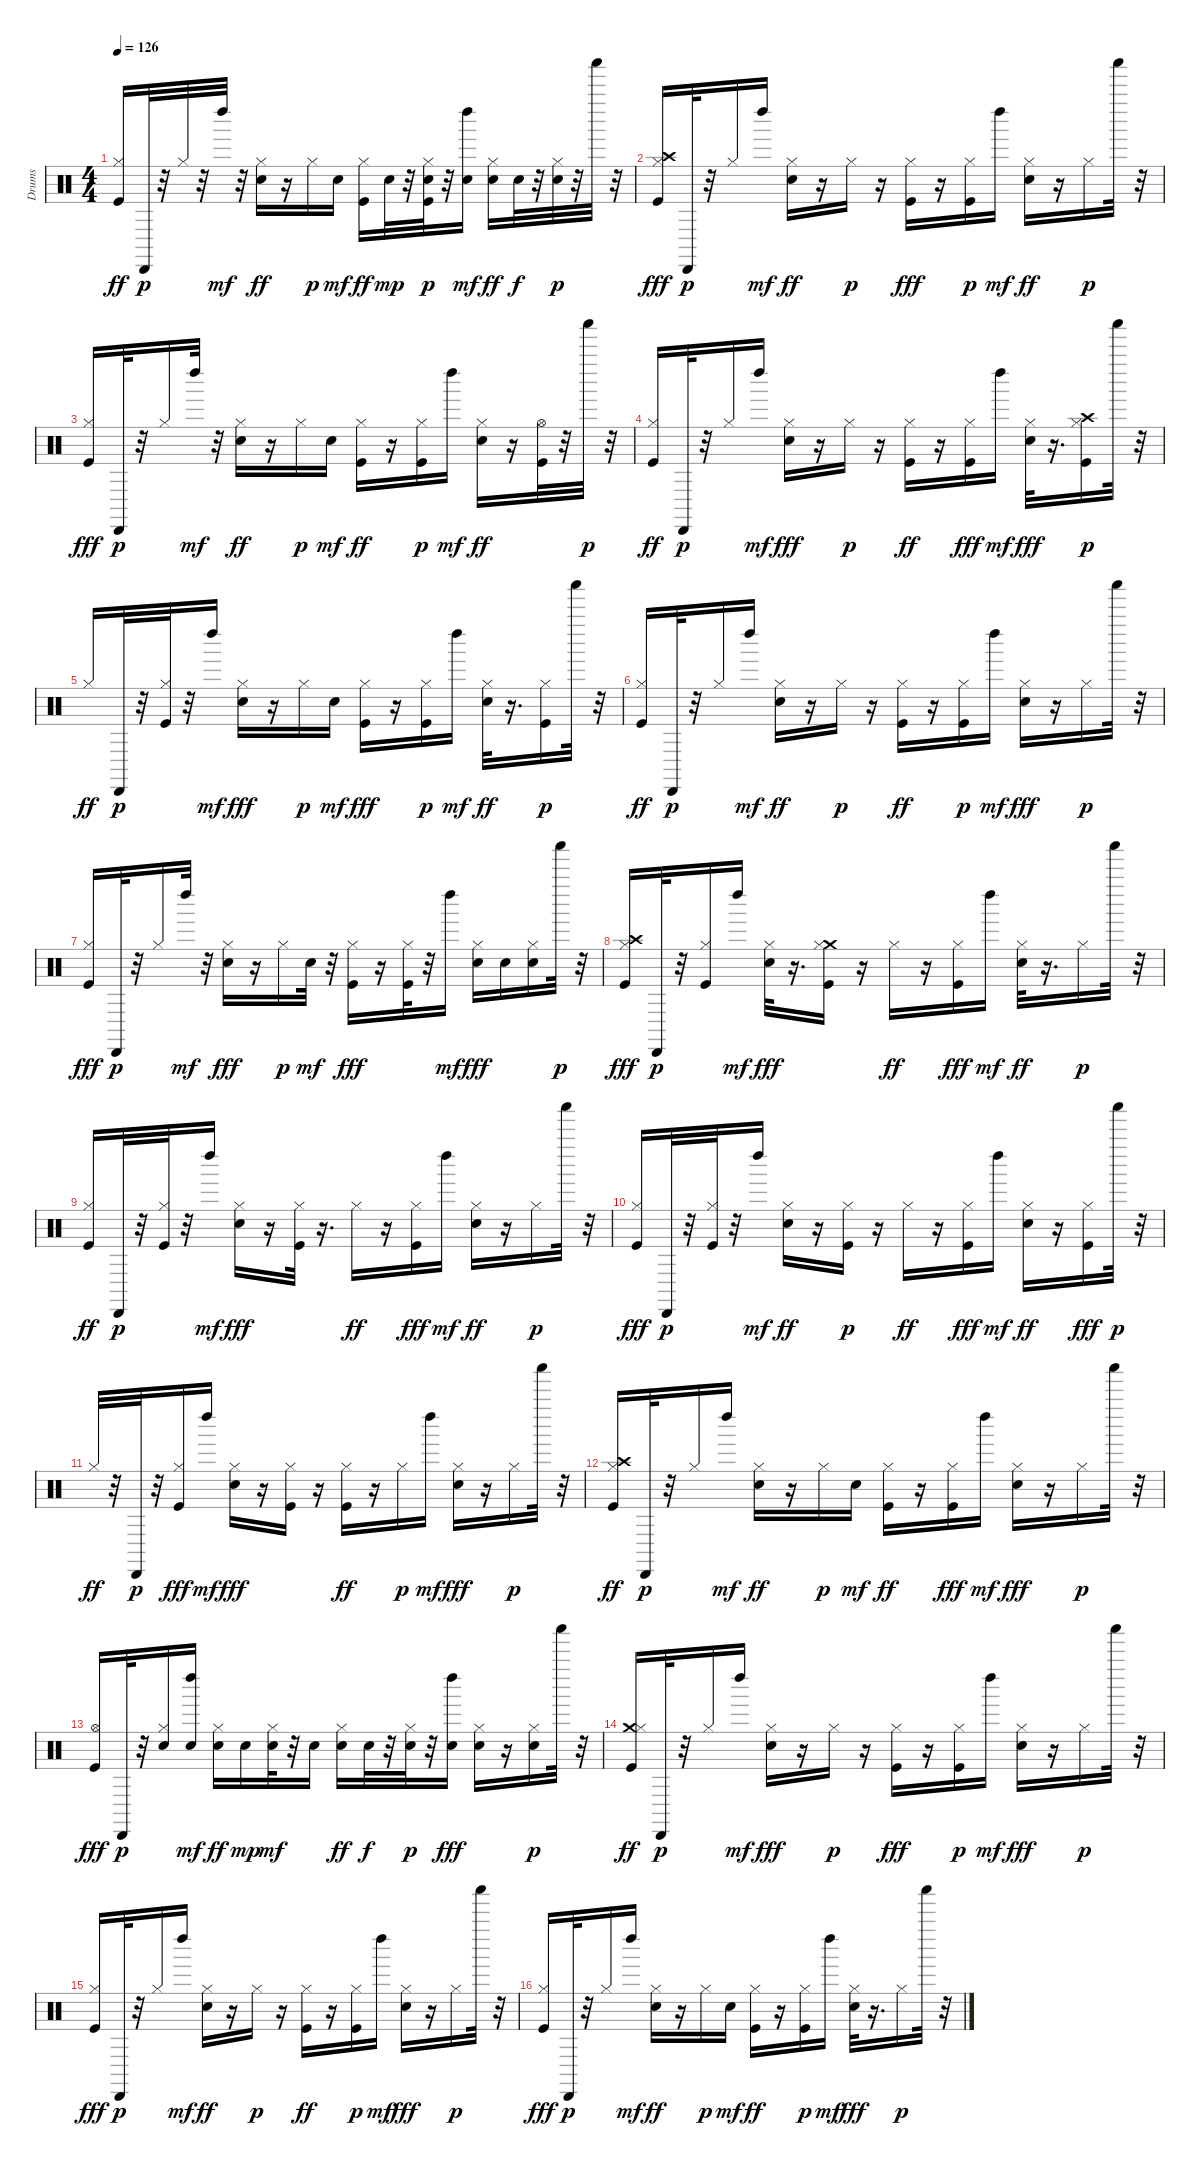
\track ("Drums" "Drums") {instrument percussion}
\staff {score}
\articulation defaults
\ts (4 4)
\tempo 126
\clef neutral
\ks c
("Kick (hit)" "Hi-Hat (closed)").16{dy ff} "Cabasa (hit)".32{dy p} r.32 "Hi-Hat (closed)".32 r.32 "Left Maraca (hit)".32{dy mf} r.32 ("Electric Snare (hit)" "Hi-Hat (closed)").16{dy ff} r.16 "Hi-Hat (closed)".16{dy p} "Electric Snare (hit)".16{dy mf} ("Kick (hit)" "Hi-Hat (closed)").16{dy ff} "Electric Snare (hit)".32{dy mp} r.32 ("Electric Snare (hit)" "Kick (hit)" "Hi-Hat (closed)").32{dy p} r.32 ("Electric Snare (hit)" "Left Maraca (hit)").16{dy mf} ("Electric Snare (hit)" "Hi-Hat (closed)").16{dy ff} "Electric Snare (hit)".32{dy f} r.32 ("Electric Snare (hit)" "Hi-Hat (closed)").32{dy p} r.32 "Shaker (hit)".32 r.32 |
("Crash high (hit)" "Hi-Hat (closed)" "Kick (hit)").16{dy fff} "Cabasa (hit)".32{dy p} r.32 "Hi-Hat (closed)".16 "Left Maraca (hit)".16{dy mf} ("Electric Snare (hit)" "Hi-Hat (closed)").16{dy ff} r.16 "Hi-Hat (closed)".16{dy p} r.16 ("Hi-Hat (closed)" "Kick (hit)").16{dy fff} r.16 ("Kick (hit)" "Hi-Hat (closed)").16{dy p} "Left Maraca (hit)".16{dy mf} ("Electric Snare (hit)" "Hi-Hat (closed)").16{dy ff} r.16 "Hi-Hat (closed)".16{dy p} "Shaker (hit)".32 r.32 |
("Hi-Hat (closed)" "Kick (hit)").16{dy fff} "Cabasa (hit)".32{dy p} r.32 "Hi-Hat (closed)".16 "Left Maraca (hit)".32{dy mf} r.32 ("Electric Snare (hit)" "Hi-Hat (closed)").16{dy ff} r.16 "Hi-Hat (closed)".16{dy p} "Electric Snare (hit)".16{dy mf} ("Kick (hit)" "Hi-Hat (closed)").16{dy ff} r.16 ("Kick (hit)" "Hi-Hat (closed)").16{dy p} "Left Maraca (hit)".16{dy mf} ("Electric Snare (hit)" "Hi-Hat (closed)").16{dy ff} r.16 ("Kick (hit)" "Hi-Hat (open)").32 r.32 "Shaker (hit)".32{dy p} r.32 |
("Kick (hit)" "Hi-Hat (closed)").16{dy ff} "Cabasa (hit)".32{dy p} r.32 "Hi-Hat (closed)".16 "Left Maraca (hit)".16{dy mf} ("Hi-Hat (closed)" "Electric Snare (hit)").16{dy fff} r.16 "Hi-Hat (closed)".16{dy p} r.16 ("Kick (hit)" "Hi-Hat (closed)").16{dy ff} r.16 ("Hi-Hat (closed)" "Kick (hit)").16{dy fff} "Left Maraca (hit)".16{dy mf} ("Hi-Hat (closed)" "Electric Snare (hit)").32{dy fff} r.16{d} ("Kick (hit)" "Crash high (hit)" "Hi-Hat (closed)").16{dy p} "Shaker (hit)".32 r.32 |
"Hi-Hat (closed)".16{dy ff} "Cabasa (hit)".32{dy p} r.32 ("Kick (hit)" "Hi-Hat (closed)").32 r.32 "Left Maraca (hit)".16{dy mf} ("Hi-Hat (closed)" "Electric Snare (hit)").16{dy fff} r.16 "Hi-Hat (closed)".16{dy p} "Electric Snare (hit)".16{dy mf} ("Hi-Hat (closed)" "Kick (hit)").16{dy fff} r.16 ("Kick (hit)" "Hi-Hat (closed)").16{dy p} "Left Maraca (hit)".16{dy mf} ("Electric Snare (hit)" "Hi-Hat (closed)").32{dy ff} r.16{d} ("Kick (hit)" "Hi-Hat (closed)").16{dy p} "Shaker (hit)".32 r.32 |
("Kick (hit)" "Hi-Hat (closed)").16{dy ff} "Cabasa (hit)".32{dy p} r.32 "Hi-Hat (closed)".16 "Left Maraca (hit)".16{dy mf} ("Electric Snare (hit)" "Hi-Hat (closed)").16{dy ff} r.16 "Hi-Hat (closed)".16{dy p} r.16 ("Kick (hit)" "Hi-Hat (closed)").16{dy ff} r.16 ("Kick (hit)" "Hi-Hat (closed)").16{dy p} "Left Maraca (hit)".16{dy mf} ("Hi-Hat (closed)" "Electric Snare (hit)").16{dy fff} r.16 "Hi-Hat (closed)".16{dy p} "Shaker (hit)".32 r.32 |
("Hi-Hat (closed)" "Kick (hit)").16{dy fff} "Cabasa (hit)".32{dy p} r.32 "Hi-Hat (closed)".16 "Left Maraca (hit)".32{dy mf} r.32 ("Hi-Hat (closed)" "Electric Snare (hit)").16{dy fff} r.16 "Hi-Hat (closed)".16{dy p} "Electric Snare (hit)".32{dy mf} r.32 ("Hi-Hat (closed)" "Kick (hit)").16{dy fff} r.16 ("Hi-Hat (closed)" "Kick (hit)").32 r.32 "Left Maraca (hit)".16{dy mf} ("Hi-Hat (closed)" "Electric Snare (hit)").16{dy fff} "Electric Snare (hit)".16 ("Hi-Hat (closed)" "Electric Snare (hit)").16 "Shaker (hit)".32{dy p} r.32 |
("Crash high (hit)" "Hi-Hat (closed)" "Kick (hit)").16{dy fff} "Cabasa (hit)".32{dy p} r.32 ("Kick (hit)" "Hi-Hat (closed)").16 "Left Maraca (hit)".16{dy mf} ("Hi-Hat (closed)" "Electric Snare (hit)").32{dy fff} r.16{d} ("Crash medium (hit)" "Hi-Hat (closed)" "Kick (hit)").16 r.16 "Hi-Hat (closed)".16{dy ff} r.16 ("Hi-Hat (closed)" "Kick (hit)").16{dy fff} "Left Maraca (hit)".16{dy mf} ("Electric Snare (hit)" "Hi-Hat (closed)").32{dy ff} r.16{d} "Hi-Hat (closed)".16{dy p} "Shaker (hit)".32 r.32 |
("Kick (hit)" "Hi-Hat (closed)").16{dy ff} "Cabasa (hit)".32{dy p} r.32 ("Kick (hit)" "Hi-Hat (closed)").32 r.32 "Left Maraca (hit)".16{dy mf} ("Hi-Hat (closed)" "Electric Snare (hit)").16{dy fff} r.16 ("Hi-Hat (closed)" "Kick (hit)").32 r.16{d} "Hi-Hat (closed)".16{dy ff} r.16 ("Hi-Hat (closed)" "Kick (hit)").16{dy fff} "Left Maraca (hit)".16{dy mf} ("Electric Snare (hit)" "Hi-Hat (closed)").16{dy ff} r.16 "Hi-Hat (closed)".16{dy p} "Shaker (hit)".32 r.32 |
("Hi-Hat (closed)" "Kick (hit)").16{dy fff} "Cabasa (hit)".32{dy p} r.32 ("Kick (hit)" "Hi-Hat (closed)").32 r.32 "Left Maraca (hit)".16{dy mf} ("Electric Snare (hit)" "Hi-Hat (closed)").16{dy ff} r.16 ("Kick (hit)" "Hi-Hat (closed)").16{dy p} r.16 "Hi-Hat (closed)".16{dy ff} r.16 ("Hi-Hat (closed)" "Kick (hit)").16{dy fff} "Left Maraca (hit)".16{dy mf} ("Electric Snare (hit)" "Hi-Hat (closed)").16{dy ff} r.16 ("Hi-Hat (closed)" "Kick (hit)").16{dy fff} "Shaker (hit)".32{dy p} r.32 |
"Hi-Hat (closed)".32{dy ff} r.32 "Cabasa (hit)".32{dy p} r.32 ("Hi-Hat (closed)" "Kick (hit)").16{dy fff} "Left Maraca (hit)".16{dy mf} ("Hi-Hat (closed)" "Electric Snare (hit)").16{dy fff} r.16 ("Hi-Hat (closed)" "Kick (hit)").16 r.16 ("Kick (hit)" "Hi-Hat (closed)").16{dy ff} r.16 "Hi-Hat (closed)".16{dy p} "Left Maraca (hit)".16{dy mf} ("Hi-Hat (closed)" "Electric Snare (hit)").16{dy fff} r.16 "Hi-Hat (closed)".16{dy p} "Shaker (hit)".32 r.32 |
("Crash high (hit)" "Kick (hit)" "Hi-Hat (closed)").16{dy ff} "Cabasa (hit)".32{dy p} r.32 "Hi-Hat (closed)".16 "Left Maraca (hit)".16{dy mf} ("Electric Snare (hit)" "Hi-Hat (closed)").16{dy ff} r.16 "Hi-Hat (closed)".16{dy p} "Electric Snare (hit)".16{dy mf} ("Kick (hit)" "Hi-Hat (closed)").16{dy ff} r.16 ("Hi-Hat (closed)" "Kick (hit)").16{dy fff} "Left Maraca (hit)".16{dy mf} ("Hi-Hat (closed)" "Electric Snare (hit)").16{dy fff} r.16 "Hi-Hat (closed)".16{dy p} "Shaker (hit)".32 r.32 |
("Hi-Hat (open)" "Kick (hit)").16{dy fff} "Cabasa (hit)".32{dy p} r.32 ("Electric Snare (hit)" "Hi-Hat (closed)").16 ("Electric Snare (hit)" "Left Maraca (hit)").16{dy mf} ("Electric Snare (hit)" "Hi-Hat (closed)").16{dy ff} "Electric Snare (hit)".16{dy mp} ("Hi-Hat (closed)" "Electric Snare (hit)").32{dy mf} r.32 "Electric Snare (hit)".16 ("Electric Snare (hit)" "Hi-Hat (closed)").16{dy ff} "Electric Snare (hit)".32{dy f} r.32 ("Electric Snare (hit)" "Hi-Hat (closed)").32{dy p} r.32 ("Left Maraca (hit)" "Electric Snare (hit)").16{dy fff} ("Hi-Hat (closed)" "Electric Snare (hit)").16 r.16 ("Electric Snare (hit)" "Hi-Hat (closed)").16{dy p} "Shaker (hit)".32 r.32 |
("Crash medium (hit)" "Kick (hit)" "Hi-Hat (closed)").16{dy ff} "Cabasa (hit)".32{dy p} r.32 "Hi-Hat (closed)".16 "Left Maraca (hit)".16{dy mf} ("Hi-Hat (closed)" "Electric Snare (hit)").16{dy fff} r.16 "Hi-Hat (closed)".16{dy p} r.16 ("Hi-Hat (closed)" "Kick (hit)").16{dy fff} r.16 ("Kick (hit)" "Hi-Hat (closed)").16{dy p} "Left Maraca (hit)".16{dy mf} ("Hi-Hat (closed)" "Electric Snare (hit)").16{dy fff} r.16 "Hi-Hat (closed)".16{dy p} "Shaker (hit)".32 r.32 |
("Hi-Hat (closed)" "Kick (hit)").16{dy fff} "Cabasa (hit)".32{dy p} r.32 "Hi-Hat (closed)".16 "Left Maraca (hit)".16{dy mf} ("Electric Snare (hit)" "Hi-Hat (closed)").16{dy ff} r.16 "Hi-Hat (closed)".16{dy p} r.16 ("Kick (hit)" "Hi-Hat (closed)").16{dy ff} r.16 ("Kick (hit)" "Hi-Hat (closed)").16{dy p} "Left Maraca (hit)".16{dy mf} ("Hi-Hat (closed)" "Electric Snare (hit)").16{dy fff} r.16 "Hi-Hat (closed)".16{dy p} "Shaker (hit)".32 r.32 |
("Hi-Hat (closed)" "Kick (hit)").16{dy fff} "Cabasa (hit)".32{dy p} r.32 "Hi-Hat (closed)".16 "Left Maraca (hit)".16{dy mf} ("Electric Snare (hit)" "Hi-Hat (closed)").16{dy ff} r.16 "Hi-Hat (closed)".16{dy p} "Electric Snare (hit)".16{dy mf} ("Kick (hit)" "Hi-Hat (closed)").16{dy ff} r.16 ("Kick (hit)" "Hi-Hat (closed)").16{dy p} "Left Maraca (hit)".16{dy mf} ("Hi-Hat (closed)" "Electric Snare (hit)").32{dy fff} r.16{d} "Hi-Hat (closed)".16{dy p} "Shaker (hit)".32 r.32
